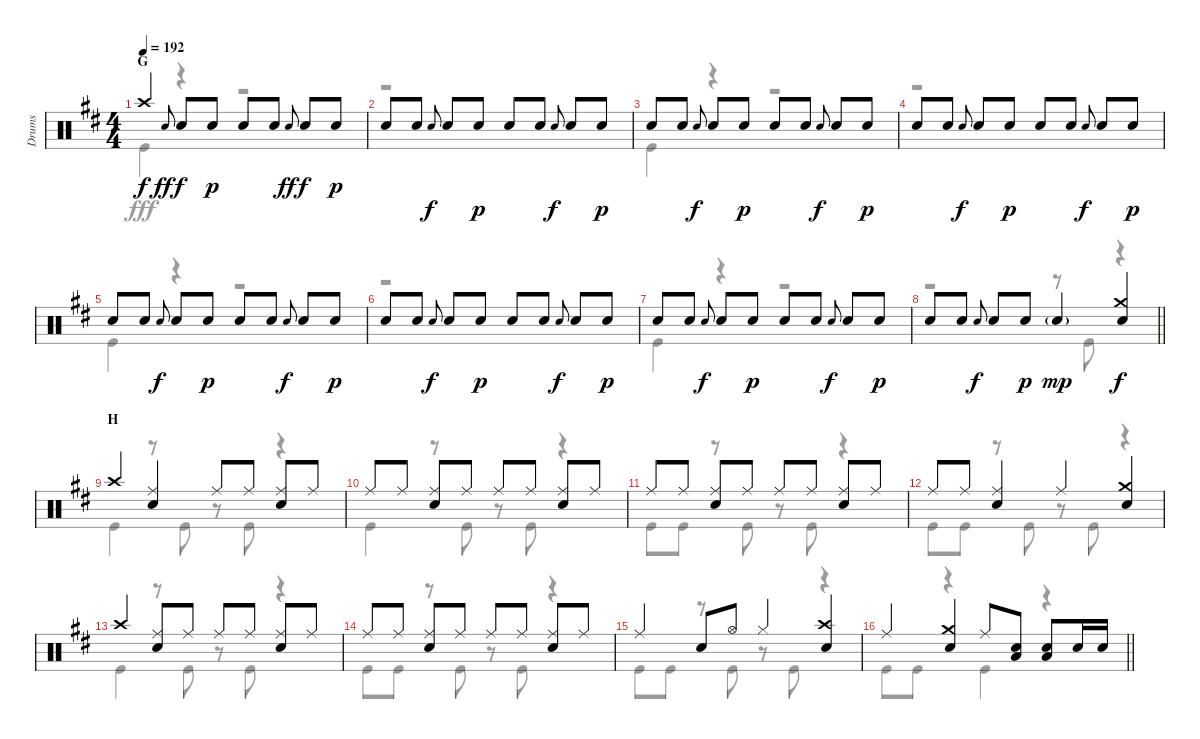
\track ("Drums" "Drums") {instrument percussion}
\staff {score}
\articulation defaults
\voice
\ts (4 4)
\section ("" "G")
\tempo 192
\clef neutral
\ks d "Crash high (hit)".4{dy f} "Snare (hit) 2".8{gr onbeat dy ff} "Snare (hit) 2".8{dy f} "Snare (hit) 2".8{dy p} "Snare (hit) 2".8 "Snare (hit) 2".8 "Snare (hit) 2".8{gr onbeat dy ff} "Snare (hit) 2".8{dy f} "Snare (hit) 2".8{dy p}
|
"Snare (hit) 2".8 "Snare (hit) 2".8 "Snare (hit) 2".8{gr onbeat dy f} "Snare (hit) 2".8 "Snare (hit) 2".8{dy p} "Snare (hit) 2".8 "Snare (hit) 2".8 "Snare (hit) 2".8{gr onbeat dy f} "Snare (hit) 2".8 "Snare (hit) 2".8{dy p} |
"Snare (hit) 2".8 "Snare (hit) 2".8 "Snare (hit) 2".8{gr onbeat dy f} "Snare (hit) 2".8 "Snare (hit) 2".8{dy p} "Snare (hit) 2".8 "Snare (hit) 2".8 "Snare (hit) 2".8{gr onbeat dy f} "Snare (hit) 2".8 "Snare (hit) 2".8{dy p} |
"Snare (hit) 2".8 "Snare (hit) 2".8 "Snare (hit) 2".8{gr onbeat dy f} "Snare (hit) 2".8 "Snare (hit) 2".8{dy p} "Snare (hit) 2".8 "Snare (hit) 2".8 "Snare (hit) 2".8{gr onbeat dy f} "Snare (hit) 2".8 "Snare (hit) 2".8{dy p} |
"Snare (hit) 2".8 "Snare (hit) 2".8 "Snare (hit) 2".8{gr onbeat dy f} "Snare (hit) 2".8 "Snare (hit) 2".8{dy p} "Snare (hit) 2".8 "Snare (hit) 2".8 "Snare (hit) 2".8{gr onbeat dy f} "Snare (hit) 2".8 "Snare (hit) 2".8{dy p} |
"Snare (hit) 2".8 "Snare (hit) 2".8 "Snare (hit) 2".8{gr onbeat dy f} "Snare (hit) 2".8 "Snare (hit) 2".8{dy p} "Snare (hit) 2".8 "Snare (hit) 2".8 "Snare (hit) 2".8{gr onbeat dy f} "Snare (hit) 2".8 "Snare (hit) 2".8{dy p} |
"Snare (hit) 2".8 "Snare (hit) 2".8 "Snare (hit) 2".8{gr onbeat dy f} "Snare (hit) 2".8 "Snare (hit) 2".8{dy p} "Snare (hit) 2".8 "Snare (hit) 2".8 "Snare (hit) 2".8{gr onbeat dy f} "Snare (hit) 2".8 "Snare (hit) 2".8{dy p} |
\barLineRight lightlight "Snare (hit) 2".8 "Snare (hit) 2".8 "Snare (hit) 2".8{gr onbeat dy f} "Snare (hit) 2".8 "Snare (hit) 2".8{dy p} "Snare (hit) 2"{g}.4{dy mp}
("Crash medium (hit)" "Snare (hit) 2").4{dy f} |
\section ("" "H")
"Crash high (hit)".4 ("Ride (middle)" "Snare (hit) 2").4 "Ride (middle)".8 "Ride (middle)".8 ("Ride (middle)" "Snare (hit) 2").8 "Ride (middle)".8 |
"Ride (middle)".8 "Ride (middle)".8 ("Ride (middle)" "Snare (hit) 2").8 "Ride (middle)".8 "Ride (middle)".8 "Ride (middle)".8 ("Ride (middle)" "Snare (hit) 2").8 "Ride (middle)".8 |
"Ride (middle)".8 "Ride (middle)".8 ("Ride (middle)" "Snare (hit) 2").8 "Ride (middle)".8 "Ride (middle)".8 "Ride (middle)".8 ("Ride (middle)" "Snare (hit) 2").8 "Ride (middle)".8 |
"Ride (middle)".8 "Ride (middle)".8 ("Ride (middle)" "Snare (hit) 2").4 "Ride (middle)".4 ("Crash medium (hit)" "Snare (hit) 2").4 |
"Crash high (hit)".4 ("Ride (middle)" "Snare (hit) 2").8 "Ride (middle)".8 "Ride (middle)".8 "Ride (middle)".8 ("Ride (middle)" "Snare (hit) 2").8 "Ride (middle)".8 |
"Ride (middle)".8 "Ride (middle)".8 ("Ride (middle)" "Snare (hit) 2").8 "Ride (middle)".8 "Ride (middle)".8 "Ride (middle)".8 ("Ride (middle)" "Snare (hit) 2").8 "Ride (middle)".8 |
"Ride (middle)".4 "Snare (hit) 2".8 "Hi-Hat (open)".8 "Hi-Hat (closed)".4 ("Crash high (hit)" "Snare (hit) 2").4 |
\barLineRight lightlight "Ride (middle)".4
("Crash medium (hit)" "Snare (hit) 2").4 "Ride (middle)".8 ("Snare (hit) 2" "Low Tom (hit)").8 ("Low Tom (hit)" "Snare (hit) 2").8 "Snare (hit) 2".16 "Snare (hit) 2".16
\voice
\clef neutral
\ottava regular
\simile none
\ks d "Kick (hit)".4{dy fff}
r.4 r.2 |
r.1 |
"Kick (hit)".4 r.4 r.2 |
r.1 |
"Kick (hit)".4 r.4 r.2 |
r.1 |
"Kick (hit)".4 r.4 r.2 |
\barLineRight lightlight
r.2 r.8 "Kick (hit)".8 r.4 |
"Kick (hit)".4 r.8 "Kick (hit)".8 r.8 "Kick (hit)".8 r.4 |
"Kick (hit)".4 r.8 "Kick (hit)".8 r.8 "Kick (hit)".8 r.4 |
"Kick (hit)".8 "Kick (hit)".8 r.8 "Kick (hit)".8 r.8 "Kick (hit)".8 r.4 |
"Kick (hit)".8 "Kick (hit)".8 r.8 "Kick (hit)".8 r.8 "Kick (hit)".8 r.4 |
"Kick (hit)".4 r.8 "Kick (hit)".8 r.8 "Kick (hit)".8 r.4 |
"Kick (hit)".8 "Kick (hit)".8 r.8 "Kick (hit)".8 r.8 "Kick (hit)".8 r.4 |
"Kick (hit)".8 "Kick (hit)".8 r.8 "Kick (hit)".8 r.8 "Kick (hit)".8 r.4 |
\barLineRight lightlight "Kick (hit)".8 "Kick (hit)".8
r.4 "Kick (hit)".4 r.4
